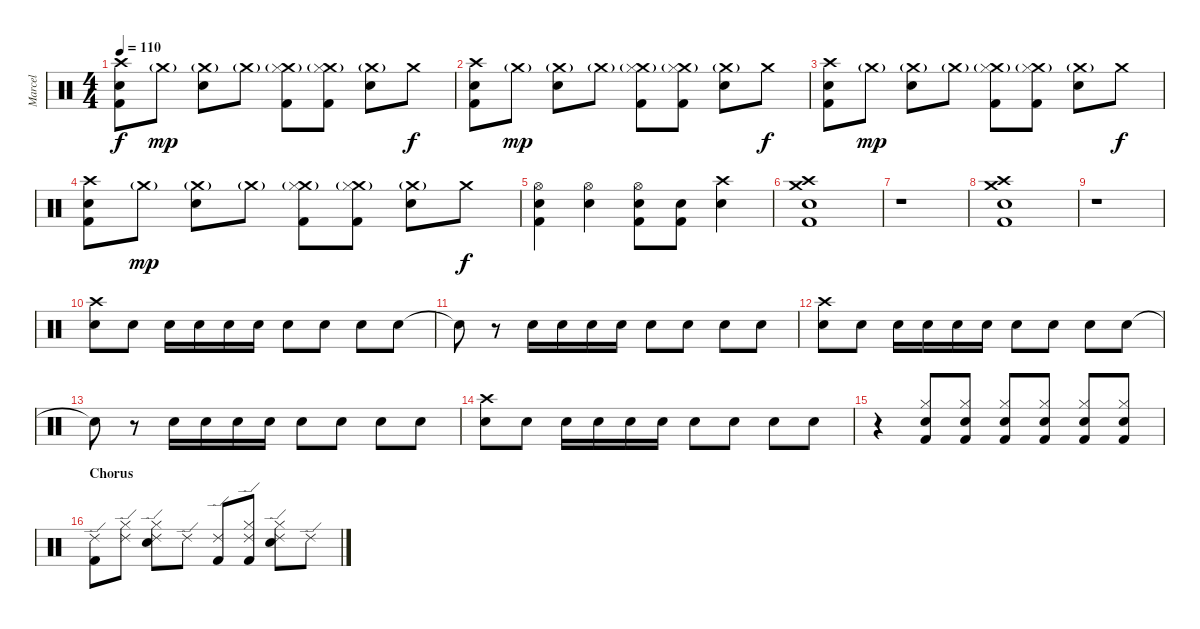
\track ("Marcel" "Marcel") {instrument percussion}
\staff {score}
\articulation defaults
\ts (4 4)
\tempo 110
\clef neutral
\ks c
("Crash high (hit)" "Electric Snare (hit)" "Kick (hit) 2").8{dy f} "Crash medium (hit)"{g}.8{dy mp} ("Crash medium (hit)"{g} "Electric Snare (hit)").8 "Crash medium (hit)"{g}.8 ("Crash medium (hit)"{g} "Hi-Hat (closed)" "Kick (hit) 2").8 ("Crash medium (hit)"{g} "Hi-Hat (closed)" "Kick (hit) 2").8 ("Crash medium (hit)"{g} "Electric Snare (hit)").8 "Crash medium (hit)".8{dy f} |
("Crash high (hit)" "Electric Snare (hit)" "Kick (hit) 2").8 "Crash medium (hit)"{g}.8{dy mp} ("Crash medium (hit)"{g} "Electric Snare (hit)").8 "Crash medium (hit)"{g}.8 ("Crash medium (hit)"{g} "Hi-Hat (closed)" "Kick (hit) 2").8 ("Crash medium (hit)"{g} "Hi-Hat (closed)" "Kick (hit) 2").8 ("Crash medium (hit)"{g} "Electric Snare (hit)").8 "Crash medium (hit)".8{dy f} |
("Crash high (hit)" "Electric Snare (hit)" "Kick (hit) 2").8 "Crash medium (hit)"{g}.8{dy mp} ("Crash medium (hit)"{g} "Electric Snare (hit)").8 "Crash medium (hit)"{g}.8 ("Crash medium (hit)"{g} "Hi-Hat (closed)" "Kick (hit) 2").8 ("Crash medium (hit)"{g} "Hi-Hat (closed)" "Kick (hit) 2").8 ("Crash medium (hit)"{g} "Electric Snare (hit)").8 "Crash medium (hit)".8{dy f} |
("Crash high (hit)" "Electric Snare (hit)" "Kick (hit) 2").8 "Crash medium (hit)"{g}.8{dy mp} ("Crash medium (hit)"{g} "Electric Snare (hit)").8 "Crash medium (hit)"{g}.8 ("Crash medium (hit)"{g} "Hi-Hat (closed)" "Kick (hit) 2").8 ("Crash medium (hit)"{g} "Hi-Hat (closed)" "Kick (hit) 2").8 ("Crash medium (hit)"{g} "Electric Snare (hit)").8 "Crash medium (hit)".8{dy f} |
("Hi-Hat (open)" "Electric Snare (hit)" "Kick (hit) 2").4 ("Hi-Hat (open)" "Electric Snare (hit)").4 ("Hi-Hat (open)" "Electric Snare (hit)" "Kick (hit) 2").8 ("Electric Snare (hit)" "Kick (hit) 2").8 ("Crash high (hit)" "Electric Snare (hit)").4 |
("Crash medium (hit)" "Crash high (hit)" "Electric Snare (hit)" "Kick (hit) 2").1 |
r.1 |
("Crash medium (hit)" "Crash high (hit)" "Electric Snare (hit)" "Kick (hit) 2").1 |
r.1 |
("Crash high (hit)" "Snare (hit) 2").8 "Snare (hit) 2".8 "Snare (hit) 2".16 "Snare (hit) 2".16 "Snare (hit) 2".16 "Snare (hit) 2".16 "Snare (hit) 2".8 "Snare (hit) 2".8 "Snare (hit) 2".8 "Snare (hit) 2".8 |
"Snare (hit) 2"{t}.8 r.8 "Snare (hit) 2".16 "Snare (hit) 2".16 "Snare (hit) 2".16 "Snare (hit) 2".16 "Snare (hit) 2".8 "Snare (hit) 2".8 "Snare (hit) 2".8 "Snare (hit) 2".8 |
("Crash high (hit)" "Snare (hit) 2").8 "Snare (hit) 2".8 "Snare (hit) 2".16 "Snare (hit) 2".16 "Snare (hit) 2".16 "Snare (hit) 2".16 "Snare (hit) 2".8 "Snare (hit) 2".8 "Snare (hit) 2".8 "Snare (hit) 2".8 |
"Snare (hit) 2"{t}.8 r.8 "Snare (hit) 2".16 "Snare (hit) 2".16 "Snare (hit) 2".16 "Snare (hit) 2".16 "Snare (hit) 2".8 "Snare (hit) 2".8 "Snare (hit) 2".8 "Snare (hit) 2".8 |
("Crash high (hit)" "Snare (hit) 2").8 "Snare (hit) 2".8 "Snare (hit) 2".16 "Snare (hit) 2".16 "Snare (hit) 2".16 "Snare (hit) 2".16 "Snare (hit) 2".8 "Snare (hit) 2".8 "Snare (hit) 2".8 "Snare (hit) 2".8 |
r.4 ("Hi-Hat (closed)" "Snare (hit) 2" "Kick (hit) 2").8 ("Hi-Hat (closed)" "Snare (hit) 2" "Kick (hit) 2").8 ("Hi-Hat (closed)" "Snare (hit) 2" "Kick (hit) 2").8 ("Hi-Hat (closed)" "Snare (hit) 2" "Kick (hit) 2").8 ("Hi-Hat (closed)" "Snare (hit) 2" "Kick (hit) 2").8 ("Hi-Hat (closed)" "Snare (hit) 2" "Kick (hit) 2").8 |
\section ("" "Chorus")
("Ride (edge) 2" "Kick (hit) 2").8 ("Hi-Hat (closed)" "Ride (edge) 2").8 ("Hi-Hat (closed)" "Ride (edge) 2" "Snare (hit) 2").8 "Ride (edge) 2".8 ("Ride (edge) 2" "Kick (hit) 2").8 ("Hi-Hat (closed)" "Ride (edge) 2" "Kick (hit) 2").8 ("Hi-Hat (closed)" "Ride (edge) 2" "Snare (hit) 2").8 "Ride (edge) 2".8
